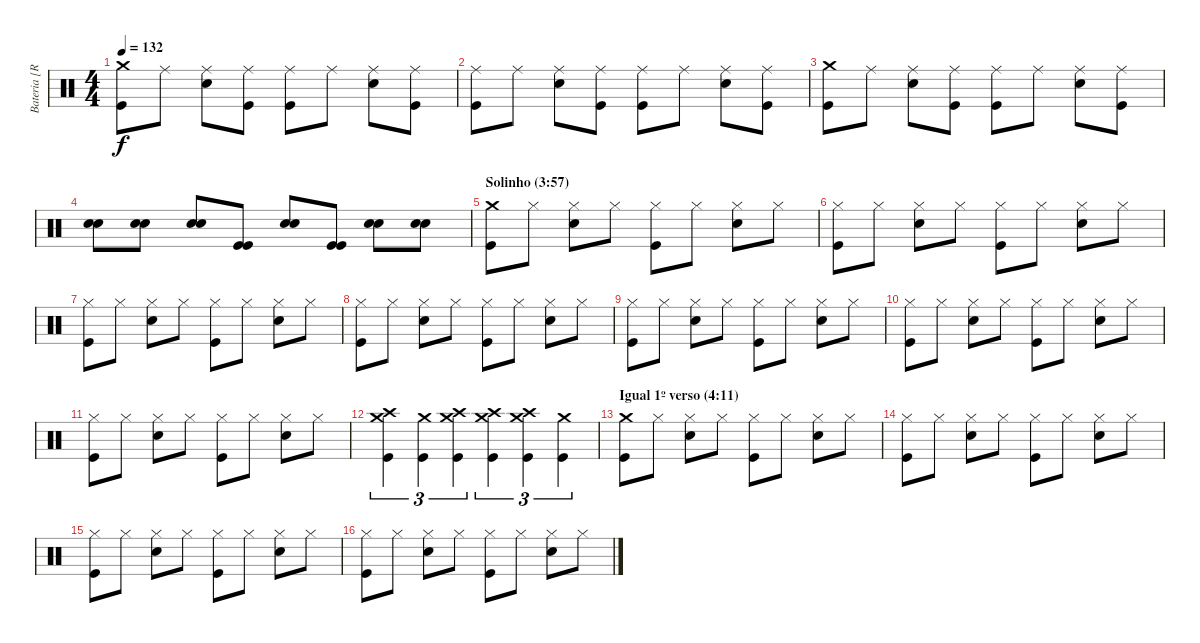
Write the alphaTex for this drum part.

\track ("Bateria [Ricardo Confessori]" "Bateria [R") {instrument percussion}
\staff {score}
\articulation defaults
\ts (4 4)
\tempo 132
\clef neutral
\ks c
("Crash medium (hit)" "Kick (hit)").8{dy f} "Ride (middle)".8 ("Ride (middle)" "Electric Snare (hit)").8 ("Ride (middle)" "Kick (hit)").8 ("Ride (middle)" "Kick (hit)").8 "Ride (middle)".8 ("Ride (middle)" "Electric Snare (hit)").8 ("Ride (middle)" "Kick (hit)").8 |
("Ride (middle)" "Kick (hit)").8 "Ride (middle)".8 ("Ride (middle)" "Electric Snare (hit)").8 ("Ride (middle)" "Kick (hit)").8 ("Ride (middle)" "Kick (hit)").8 "Ride (middle)".8 ("Ride (middle)" "Electric Snare (hit)").8 ("Ride (middle)" "Kick (hit)").8 |
("Crash medium (hit)" "Kick (hit)").8 "Ride (middle)".8 ("Ride (middle)" "Electric Snare (hit)").8 ("Ride (middle)" "Kick (hit)").8 ("Ride (middle)" "Kick (hit)").8 "Ride (middle)".8 ("Ride (middle)" "Electric Snare (hit)").8 ("Ride (middle)" "Kick (hit)").8 |
("Electric Snare (hit)" "Electric Snare (hit)").8 ("Electric Snare (hit)" "Electric Snare (hit)").8 ("Electric Snare (hit)" "Electric Snare (hit)").8 ("Kick (hit)" "Kick (hit)").8 ("Electric Snare (hit)" "Electric Snare (hit)").8 ("Kick (hit)" "Kick (hit)").8 ("Electric Snare (hit)" "Electric Snare (hit)").8 ("Electric Snare (hit)" "Electric Snare (hit)").8 |
\section ("" "Solinho (3:57)")
("Crash medium (hit)" "Kick (hit)").8 "Hi-Hat (closed)".8 ("Hi-Hat (closed)" "Electric Snare (hit)").8 "Hi-Hat (closed)".8 ("Hi-Hat (closed)" "Kick (hit)").8 "Hi-Hat (closed)".8 ("Hi-Hat (closed)" "Electric Snare (hit)").8 "Hi-Hat (closed)".8 |
("Hi-Hat (closed)" "Kick (hit)").8 "Hi-Hat (closed)".8 ("Hi-Hat (closed)" "Electric Snare (hit)").8 "Hi-Hat (closed)".8 ("Hi-Hat (closed)" "Kick (hit)").8 "Hi-Hat (closed)".8 ("Hi-Hat (closed)" "Electric Snare (hit)").8 "Hi-Hat (closed)".8 |
("Hi-Hat (closed)" "Kick (hit)").8 "Hi-Hat (closed)".8 ("Hi-Hat (closed)" "Electric Snare (hit)").8 "Hi-Hat (closed)".8 ("Hi-Hat (closed)" "Kick (hit)").8 "Hi-Hat (closed)".8 ("Hi-Hat (closed)" "Electric Snare (hit)").8 "Hi-Hat (closed)".8 |
("Hi-Hat (closed)" "Kick (hit)").8 "Hi-Hat (closed)".8 ("Hi-Hat (closed)" "Electric Snare (hit)").8 "Hi-Hat (closed)".8 ("Hi-Hat (closed)" "Kick (hit)").8 "Hi-Hat (closed)".8 ("Hi-Hat (closed)" "Electric Snare (hit)").8 "Hi-Hat (closed)".8 |
("Hi-Hat (closed)" "Kick (hit)").8 "Hi-Hat (closed)".8 ("Hi-Hat (closed)" "Electric Snare (hit)").8 "Hi-Hat (closed)".8 ("Hi-Hat (closed)" "Kick (hit)").8 "Hi-Hat (closed)".8 ("Hi-Hat (closed)" "Electric Snare (hit)").8 "Hi-Hat (closed)".8 |
("Hi-Hat (closed)" "Kick (hit)").8 "Hi-Hat (closed)".8 ("Hi-Hat (closed)" "Electric Snare (hit)").8 "Hi-Hat (closed)".8 ("Hi-Hat (closed)" "Kick (hit)").8 "Hi-Hat (closed)".8 ("Hi-Hat (closed)" "Electric Snare (hit)").8 "Hi-Hat (closed)".8 |
("Hi-Hat (closed)" "Kick (hit)").8 "Hi-Hat (closed)".8 ("Hi-Hat (closed)" "Electric Snare (hit)").8 "Hi-Hat (closed)".8 ("Hi-Hat (closed)" "Kick (hit)").8 "Hi-Hat (closed)".8 ("Hi-Hat (closed)" "Electric Snare (hit)").8 "Hi-Hat (closed)".8 |
("Crash medium (hit)" "Crash high (hit)" "Kick (hit)").4{tu (3 2)} ("Crash medium (hit)" "Kick (hit)").4{tu (3 2)} ("Crash medium (hit)" "Crash high (hit)" "Kick (hit)").4{tu (3 2)} ("Crash medium (hit)" "Crash high (hit)" "Kick (hit)").4{tu (3 2)} ("Crash medium (hit)" "Crash high (hit)" "Kick (hit)").4{tu (3 2)} ("Crash medium (hit)" "Kick (hit)").4{tu (3 2)} |
\section ("" "Igual 1º verso (4:11)")
("Crash medium (hit)" "Kick (hit)").8 "Hi-Hat (closed)".8 ("Hi-Hat (closed)" "Electric Snare (hit)").8 "Hi-Hat (closed)".8 ("Hi-Hat (closed)" "Kick (hit)").8 "Hi-Hat (closed)".8 ("Hi-Hat (closed)" "Electric Snare (hit)").8 "Hi-Hat (closed)".8 |
("Hi-Hat (closed)" "Kick (hit)").8 "Hi-Hat (closed)".8 ("Hi-Hat (closed)" "Electric Snare (hit)").8 "Hi-Hat (closed)".8 ("Hi-Hat (closed)" "Kick (hit)").8 "Hi-Hat (closed)".8 ("Hi-Hat (closed)" "Electric Snare (hit)").8 "Hi-Hat (closed)".8 |
("Hi-Hat (closed)" "Kick (hit)").8 "Hi-Hat (closed)".8 ("Hi-Hat (closed)" "Electric Snare (hit)").8 "Hi-Hat (closed)".8 ("Hi-Hat (closed)" "Kick (hit)").8 "Hi-Hat (closed)".8 ("Hi-Hat (closed)" "Electric Snare (hit)").8 "Hi-Hat (closed)".8 |
("Hi-Hat (closed)" "Kick (hit)").8 "Hi-Hat (closed)".8 ("Hi-Hat (closed)" "Electric Snare (hit)").8 "Hi-Hat (closed)".8 ("Hi-Hat (closed)" "Kick (hit)").8 "Hi-Hat (closed)".8 ("Hi-Hat (closed)" "Electric Snare (hit)").8 "Hi-Hat (closed)".8
